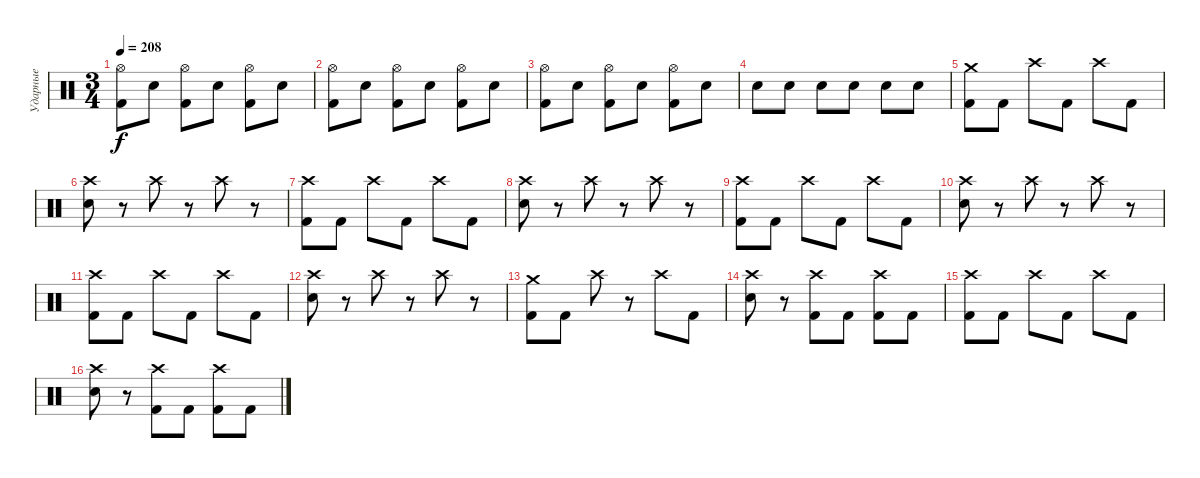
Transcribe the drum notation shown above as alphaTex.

\track ("Ударные" "Ударные") {instrument percussion}
\staff {score}
\articulation defaults
\ts (3 4)
\tempo 208
\clef neutral
\ks c
("Hi-Hat (open)" "Kick (hit) 2").8{dy f} "Electric Snare (hit)".8 ("Hi-Hat (open)" "Kick (hit) 2").8 "Electric Snare (hit)".8 ("Hi-Hat (open)" "Kick (hit) 2").8 "Electric Snare (hit)".8 |
("Hi-Hat (open)" "Kick (hit) 2").8 "Electric Snare (hit)".8 ("Hi-Hat (open)" "Kick (hit) 2").8 "Electric Snare (hit)".8 ("Hi-Hat (open)" "Kick (hit) 2").8 "Electric Snare (hit)".8 |
("Hi-Hat (open)" "Kick (hit) 2").8 "Electric Snare (hit)".8 ("Hi-Hat (open)" "Kick (hit) 2").8 "Electric Snare (hit)".8 ("Hi-Hat (open)" "Kick (hit) 2").8 "Electric Snare (hit)".8 |
"Electric Snare (hit)".8 "Electric Snare (hit)".8 "Electric Snare (hit)".8 "Electric Snare (hit)".8 "Electric Snare (hit)".8 "Electric Snare (hit)".8 |
("Crash medium (hit)" "Kick (hit) 2").8 "Kick (hit) 2".8 "Crash high (hit)".8 "Kick (hit) 2".8 "Crash high (hit)".8 "Kick (hit) 2".8 |
("Crash high (hit)" "Electric Snare (hit)").8 r.8 "Crash high (hit)".8 r.8 "Crash high (hit)".8 r.8 |
("Crash high (hit)" "Kick (hit) 2").8 "Kick (hit) 2".8 "Crash high (hit)".8 "Kick (hit) 2".8 "Crash high (hit)".8 "Kick (hit) 2".8 |
("Crash high (hit)" "Electric Snare (hit)").8 r.8 "Crash high (hit)".8 r.8 "Crash high (hit)".8 r.8 |
("Crash high (hit)" "Kick (hit) 2").8 "Kick (hit) 2".8 "Crash high (hit)".8 "Kick (hit) 2".8 "Crash high (hit)".8 "Kick (hit) 2".8 |
("Crash high (hit)" "Electric Snare (hit)").8 r.8 "Crash high (hit)".8 r.8 "Crash high (hit)".8 r.8 |
("Crash high (hit)" "Kick (hit) 2").8 "Kick (hit) 2".8 "Crash high (hit)".8 "Kick (hit) 2".8 "Crash high (hit)".8 "Kick (hit) 2".8 |
("Crash high (hit)" "Electric Snare (hit)").8 r.8 "Crash high (hit)".8 r.8 "Crash high (hit)".8 r.8 |
("Crash medium (hit)" "Kick (hit) 2").8 "Kick (hit) 2".8 "Crash high (hit)".8 r.8 "Crash high (hit)".8 "Kick (hit) 2".8 |
("Crash high (hit)" "Electric Snare (hit)").8 r.8 ("Crash high (hit)" "Kick (hit) 2").8 "Kick (hit) 2".8 ("Crash high (hit)" "Kick (hit) 2").8 "Kick (hit) 2".8 |
("Crash high (hit)" "Kick (hit) 2").8 "Kick (hit) 2".8 "Crash high (hit)".8 "Kick (hit) 2".8 "Crash high (hit)".8 "Kick (hit) 2".8 |
("Crash high (hit)" "Electric Snare (hit)").8 r.8 ("Crash high (hit)" "Kick (hit) 2").8 "Kick (hit) 2".8 ("Crash high (hit)" "Kick (hit) 2").8 "Kick (hit) 2".8
